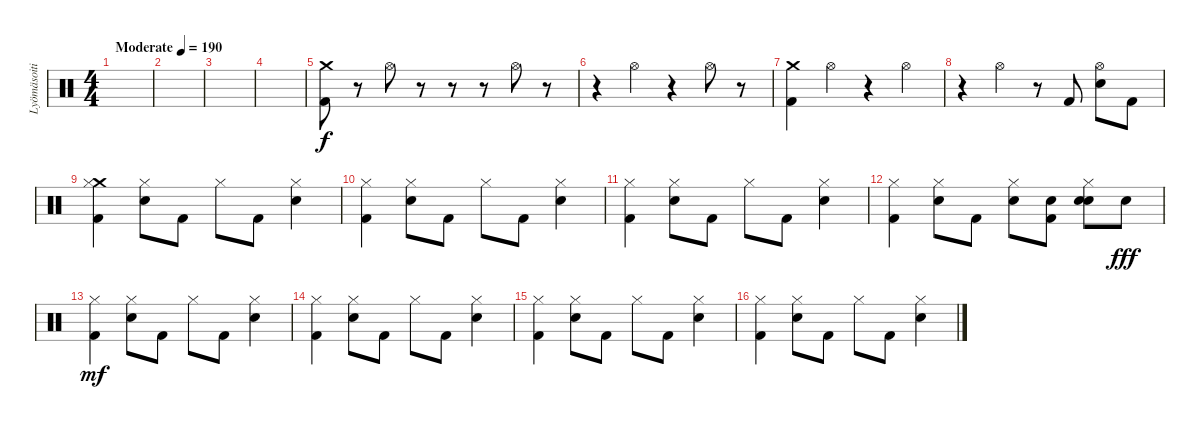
\track ("Lyömäsoitin" "Lyömäsoiti") {instrument percussion}
\staff {score}
\articulation defaults
\ts (4 4)
\tempo (190 "Moderate")
\clef neutral
\ks c
|
|
|
|
("Crash medium (hit)" "Kick (hit) 2").8 r.8 "Hi-Hat (open)".8 r.8 r.8 r.8 "Hi-Hat (open)".8 r.8 |
r.4 "Hi-Hat (open)".4 r.4 "Hi-Hat (open)".8 r.8 |
("Crash medium (hit)" "Kick (hit) 2").4 "Hi-Hat (open)".4 r.4 "Hi-Hat (open)".4 |
r.4 "Hi-Hat (open)".4 r.8 "Kick (hit) 2".8 ("Hi-Hat (open)" "Electric Snare (hit)").8 "Kick (hit) 2".8 |
("Crash medium (hit)" "Hi-Hat (closed)" "Kick (hit) 2").4 ("Hi-Hat (closed)" "Snare (hit) 2").8 "Kick (hit) 2".8 "Hi-Hat (closed)".8 "Kick (hit) 2".8 ("Hi-Hat (closed)" "Snare (hit) 2").4 |
("Hi-Hat (closed)" "Kick (hit) 2").4 ("Hi-Hat (closed)" "Snare (hit) 2").8 "Kick (hit) 2".8 "Hi-Hat (closed)".8 "Kick (hit) 2".8 ("Hi-Hat (closed)" "Snare (hit) 2").4 |
("Hi-Hat (closed)" "Kick (hit) 2").4 ("Hi-Hat (closed)" "Snare (hit) 2").8 "Kick (hit) 2".8 "Hi-Hat (closed)".8 "Kick (hit) 2".8 ("Hi-Hat (closed)" "Snare (hit) 2").4 |
("Hi-Hat (closed)" "Kick (hit) 2").4 ("Hi-Hat (closed)" "Snare (hit) 2").8 "Kick (hit) 2".8 ("Hand Clap (hit)" "Hi-Hat (closed)").8 ("Hand Clap (hit)" "Kick (hit) 2").8 ("Hand Clap (hit)" "Hi-Hat (closed)" "Snare (hit) 2").8 "Hand Clap (hit)".8{dy fff} |
("Hi-Hat (closed)" "Kick (hit) 2").4{dy mf} ("Hi-Hat (closed)" "Snare (hit) 2").8 "Kick (hit) 2".8 "Hi-Hat (closed)".8 "Kick (hit) 2".8 ("Hi-Hat (closed)" "Snare (hit) 2").4 |
("Hi-Hat (closed)" "Kick (hit) 2").4 ("Hi-Hat (closed)" "Snare (hit) 2").8 "Kick (hit) 2".8 "Hi-Hat (closed)".8 "Kick (hit) 2".8 ("Hi-Hat (closed)" "Snare (hit) 2").4 |
("Hi-Hat (closed)" "Kick (hit) 2").4 ("Hi-Hat (closed)" "Snare (hit) 2").8 "Kick (hit) 2".8 "Hi-Hat (closed)".8 "Kick (hit) 2".8 ("Hi-Hat (closed)" "Snare (hit) 2").4 |
("Hi-Hat (closed)" "Kick (hit) 2").4 ("Hi-Hat (closed)" "Snare (hit) 2").8 "Kick (hit) 2".8 "Hi-Hat (closed)".8 "Kick (hit) 2".8 ("Hi-Hat (closed)" "Snare (hit) 2").4
